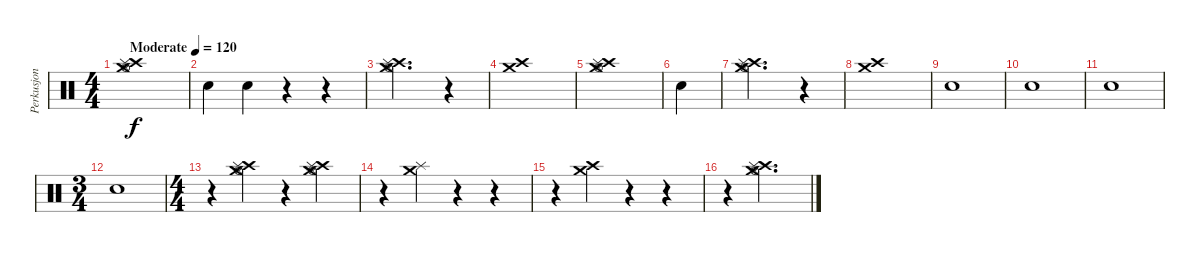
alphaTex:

\track ("Perkusjon" "Perkusjon") {instrument percussion}
\staff {score}
\articulation defaults
\ts (4 4)
\tempo (120 "Moderate")
\clef neutral
\ks c
("Crash medium (hit)" "Crash high (hit)" "Hi-Hat (open)" "Splash (hit)").1{dy f} |
"Snare (hit)".4 "Snare (hit)".4 r.4 r.4 |
("Crash medium (hit)" "Crash high (hit)" "Hi-Hat (open)" "Splash (hit)").2{d} r.4 |
("Crash medium (hit)" "Crash high (hit)").1 |
("Crash medium (hit)" "Crash high (hit)" "Hi-Hat (open)" "Splash (hit)").1 |
"Snare (hit)".4 |
("Crash medium (hit)" "Crash high (hit)" "Hi-Hat (open)" "Splash (hit)").2{d} r.4 |
("Crash medium (hit)" "Crash high (hit)").1 |
"Snare (hit)".1 |
"Snare (hit)".1 |
"Snare (hit)".1 |
\ts (3 4)
"Snare (hit)".1 |
\ts (4 4)
r.4 ("Crash medium (hit)" "Crash high (hit)" "Hi-Hat (open)" "Splash (hit)").4 r.4 ("Crash medium (hit)" "Crash high (hit)" "Hi-Hat (open)" "Splash (hit)").4 |
r.4 ("Crash medium (hit)" "Splash (hit)").4 r.4 r.4 |
r.4 ("Crash medium (hit)" "Crash high (hit)").4 r.4 r.4 |
r.4 ("Crash high (hit)" "Crash medium (hit)" "Splash (hit)" "Hi-Hat (open)").2{d}
